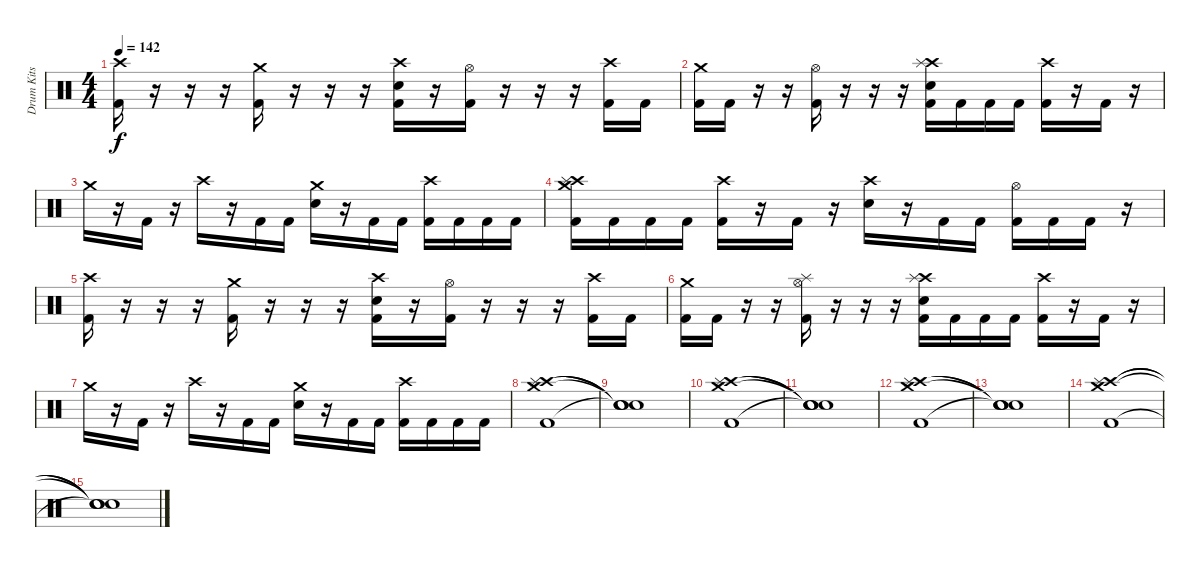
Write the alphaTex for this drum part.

\track ("Drum Kits" "Drum Kits") {instrument percussion}
\staff {score}
\articulation defaults
\ts (4 4)
\tempo 142
\clef neutral
\ks c
("Crash high (hit)" "Kick (hit) 2").16{dy f} r.16 r.16 r.16 ("Crash medium (hit)" "Kick (hit) 2").16 r.16 r.16 r.16 ("Crash high (hit)" "Electric Snare (hit)" "Kick (hit) 2").16 r.16 ("Hi-Hat (open)" "Kick (hit) 2").16 r.16 r.16 r.16 ("Crash high (hit)" "Kick (hit) 2").16 "Kick (hit) 2".16 |
("Crash medium (hit)" "Kick (hit) 2").16 "Kick (hit) 2".16 r.16 r.16 ("Hi-Hat (open)" "Kick (hit) 2").16 r.16 r.16 r.16 ("Crash high (hit)" "Electric Snare (hit)" "Splash (hit)" "Kick (hit) 2").16 "Kick (hit) 2".16 "Kick (hit) 2".16 "Kick (hit) 2".16 ("Crash high (hit)" "Kick (hit) 2").16 r.16 "Kick (hit) 2".16 r.16 |
"Crash medium (hit)".16 r.16 "Kick (hit) 2".16 r.16 "Crash high (hit)".16 r.16 "Kick (hit) 2".16 "Kick (hit) 2".16 ("Crash medium (hit)" "Electric Snare (hit)").16 r.16 "Kick (hit) 2".16 "Kick (hit) 2".16 ("Crash high (hit)" "Kick (hit) 2").16 "Kick (hit) 2".16 "Kick (hit) 2".16 "Kick (hit) 2".16 |
("Crash high (hit)" "Crash medium (hit)" "Splash (hit)" "Kick (hit) 2").16 "Kick (hit) 2".16 "Kick (hit) 2".16 "Kick (hit) 2".16 ("Crash high (hit)" "Kick (hit) 2").16 r.16 "Kick (hit) 2".16 r.16 ("Crash high (hit)" "Electric Snare (hit)").16 r.16 "Kick (hit) 2".16 "Kick (hit) 2".16 ("Hi-Hat (open)" "Kick (hit) 2").16 "Kick (hit) 2".16 "Kick (hit) 2".16 r.16 |
("Crash high (hit)" "Kick (hit) 2").16 r.16 r.16 r.16 ("Crash medium (hit)" "Kick (hit) 2").16 r.16 r.16 r.16 ("Crash high (hit)" "Electric Snare (hit)" "Kick (hit) 2").16 r.16 ("Hi-Hat (open)" "Kick (hit) 2").16 r.16 r.16 r.16 ("Crash high (hit)" "Kick (hit) 2").16 "Kick (hit) 2".16 |
("Crash medium (hit)" "Kick (hit) 2").16 "Kick (hit) 2".16 r.16 r.16 ("Hi-Hat (open)" "Splash (hit)" "Kick (hit) 2").16 r.16 r.16 r.16 ("Crash high (hit)" "Electric Snare (hit)" "Splash (hit)" "Kick (hit) 2").16 "Kick (hit) 2".16 "Kick (hit) 2".16 "Kick (hit) 2".16 ("Crash high (hit)" "Kick (hit) 2").16 r.16 "Kick (hit) 2".16 r.16 |
"Crash medium (hit)".16 r.16 "Kick (hit) 2".16 r.16 "Crash high (hit)".16 r.16 "Kick (hit) 2".16 "Kick (hit) 2".16 ("Crash medium (hit)" "Electric Snare (hit)").16 r.16 "Kick (hit) 2".16 "Kick (hit) 2".16 ("Crash high (hit)" "Kick (hit) 2").16 "Kick (hit) 2".16 "Kick (hit) 2".16 "Kick (hit) 2".16 |
("Crash high (hit)" "Splash (hit)" "Crash medium (hit)" "Kick (hit) 2").1 |
("Snare (hit)"{t} "Snare (hit)"{t} "Snare (hit)"{t} "Snare (hit)"{t}).1 |
("Crash high (hit)" "Splash (hit)" "Crash medium (hit)" "Kick (hit) 2").1 |
("Snare (hit)"{t} "Snare (hit)"{t} "Snare (hit)"{t} "Snare (hit)"{t}).1 |
("Crash high (hit)" "Splash (hit)" "Crash medium (hit)" "Kick (hit) 2").1 |
("Snare (hit)"{t} "Snare (hit)"{t} "Snare (hit)"{t} "Snare (hit)"{t}).1 |
("Crash high (hit)" "Splash (hit)" "Crash medium (hit)" "Kick (hit) 2").1 |
("Snare (hit)"{t} "Snare (hit)"{t} "Snare (hit)"{t} "Snare (hit)"{t}).1
